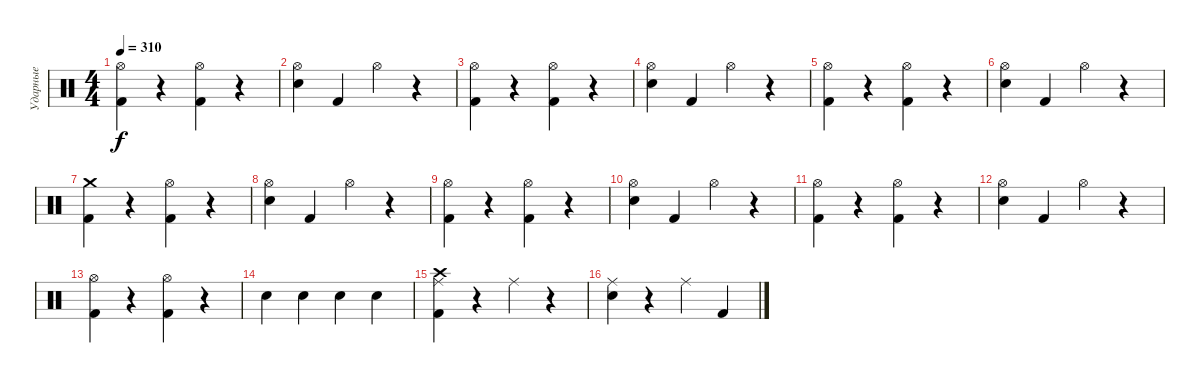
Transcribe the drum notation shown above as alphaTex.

\track ("Ударные" "Ударные") {instrument percussion}
\staff {score}
\articulation defaults
\ts (4 4)
\tempo 310
\clef neutral
\ks c
("Hi-Hat (open)" "Kick (hit) 2").4{dy f} r.4 ("Hi-Hat (open)" "Kick (hit) 2").4 r.4 |
("Hi-Hat (open)" "Electric Snare (hit)").4 "Kick (hit) 2".4 "Hi-Hat (open)".4 r.4 |
("Hi-Hat (open)" "Kick (hit) 2").4 r.4 ("Hi-Hat (open)" "Kick (hit) 2").4 r.4 |
("Hi-Hat (open)" "Electric Snare (hit)").4 "Kick (hit) 2".4 "Hi-Hat (open)".4 r.4 |
("Hi-Hat (open)" "Kick (hit) 2").4 r.4 ("Hi-Hat (open)" "Kick (hit) 2").4 r.4 |
("Hi-Hat (open)" "Electric Snare (hit)").4 "Kick (hit) 2".4 "Hi-Hat (open)".4 r.4 |
("Crash medium (hit)" "Kick (hit) 2").4 r.4 ("Hi-Hat (open)" "Kick (hit) 2").4 r.4 |
("Hi-Hat (open)" "Electric Snare (hit)").4 "Kick (hit) 2".4 "Hi-Hat (open)".4 r.4 |
("Hi-Hat (open)" "Kick (hit) 2").4 r.4 ("Hi-Hat (open)" "Kick (hit) 2").4 r.4 |
("Hi-Hat (open)" "Electric Snare (hit)").4 "Kick (hit) 2".4 "Hi-Hat (open)".4 r.4 |
("Hi-Hat (open)" "Kick (hit) 2").4 r.4 ("Hi-Hat (open)" "Kick (hit) 2").4 r.4 |
("Hi-Hat (open)" "Electric Snare (hit)").4 "Kick (hit) 2".4 "Hi-Hat (open)".4 r.4 |
("Hi-Hat (open)" "Kick (hit) 2").4 r.4 ("Hi-Hat (open)" "Kick (hit) 2").4 r.4 |
"Electric Snare (hit)".4 "Electric Snare (hit)".4 "Electric Snare (hit)".4 "Electric Snare (hit)".4 |
("Crash high (hit)" "Ride (middle)" "Kick (hit) 2").4 r.4 "Ride (middle)".4 r.4 |
("Ride (middle)" "Electric Snare (hit)").4 r.4 "Ride (middle)".4 "Kick (hit) 2".4
